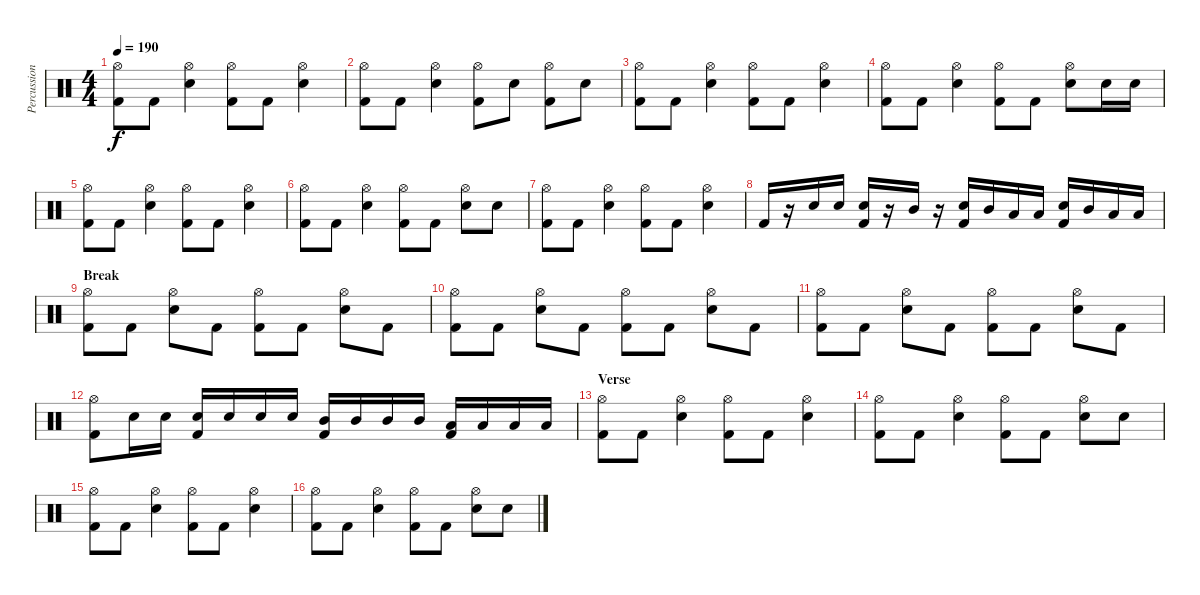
\track ("Percussion" "Percussion") {instrument percussion}
\staff {score}
\articulation defaults
\ts (4 4)
\tempo 190
\clef neutral
\ks c
("Hi-Hat (open)" "Kick (hit) 2").8{dy f} "Kick (hit) 2".8 ("Hi-Hat (open)" "Snare (hit) 2").4 ("Hi-Hat (open)" "Kick (hit) 2").8 "Kick (hit) 2".8 ("Hi-Hat (open)" "Snare (hit) 2").4 |
("Hi-Hat (open)" "Kick (hit) 2").8 "Kick (hit) 2".8 ("Hi-Hat (open)" "Snare (hit) 2").4 ("Hi-Hat (open)" "Kick (hit) 2").8 "Snare (hit) 2".8 ("Hi-Hat (open)" "Kick (hit) 2").8 "Snare (hit) 2".8 |
("Hi-Hat (open)" "Kick (hit) 2").8 "Kick (hit) 2".8 ("Hi-Hat (open)" "Snare (hit) 2").4 ("Hi-Hat (open)" "Kick (hit) 2").8 "Kick (hit) 2".8 ("Hi-Hat (open)" "Snare (hit) 2").4 |
("Hi-Hat (open)" "Kick (hit) 2").8 "Kick (hit) 2".8 ("Hi-Hat (open)" "Snare (hit) 2").4 ("Hi-Hat (open)" "Kick (hit) 2").8 "Kick (hit) 2".8 ("Hi-Hat (open)" "Snare (hit) 2").8 "Snare (hit) 2".16 "Snare (hit) 2".16 |
("Hi-Hat (open)" "Kick (hit) 2").8 "Kick (hit) 2".8 ("Hi-Hat (open)" "Snare (hit) 2").4 ("Hi-Hat (open)" "Kick (hit) 2").8 "Kick (hit) 2".8 ("Hi-Hat (open)" "Snare (hit) 2").4 |
("Hi-Hat (open)" "Kick (hit) 2").8 "Kick (hit) 2".8 ("Hi-Hat (open)" "Snare (hit) 2").4 ("Hi-Hat (open)" "Kick (hit) 2").8 "Kick (hit) 2".8 ("Hi-Hat (open)" "Snare (hit) 2").8 "Snare (hit) 2".8 |
("Hi-Hat (open)" "Kick (hit) 2").8 "Kick (hit) 2".8 ("Hi-Hat (open)" "Snare (hit) 2").4 ("Hi-Hat (open)" "Kick (hit) 2").8 "Kick (hit) 2".8 ("Hi-Hat (open)" "Snare (hit) 2").4 |
"Kick (hit) 2".16 r.16 "Snare (hit) 2".16 "Snare (hit) 2".16 ("Snare (hit) 2" "Kick (hit) 2").16 r.16 "Mid Tom (hit)".16 r.16 ("Snare (hit) 2" "Kick (hit) 2").16 "Mid Tom (hit)".16 "Low Tom (hit)".16 "Low Tom (hit)".16 ("Snare (hit) 2" "Kick (hit) 2").16 "Mid Tom (hit)".16 "Low Tom (hit)".16 "Low Tom (hit)".16 |
\section ("" "Break")
("Hi-Hat (open)" "Kick (hit) 2").8 "Kick (hit) 2".8 ("Hi-Hat (open)" "Snare (hit) 2").8 "Kick (hit) 2".8 ("Hi-Hat (open)" "Kick (hit) 2").8 "Kick (hit) 2".8 ("Hi-Hat (open)" "Snare (hit) 2").8 "Kick (hit) 2".8 |
("Hi-Hat (open)" "Kick (hit) 2").8 "Kick (hit) 2".8 ("Hi-Hat (open)" "Snare (hit) 2").8 "Kick (hit) 2".8 ("Hi-Hat (open)" "Kick (hit) 2").8 "Kick (hit) 2".8 ("Hi-Hat (open)" "Snare (hit) 2").8 "Kick (hit) 2".8 |
("Hi-Hat (open)" "Kick (hit) 2").8 "Kick (hit) 2".8 ("Hi-Hat (open)" "Snare (hit) 2").8 "Kick (hit) 2".8 ("Hi-Hat (open)" "Kick (hit) 2").8 "Kick (hit) 2".8 ("Hi-Hat (open)" "Snare (hit) 2").8 "Kick (hit) 2".8 |
("Hi-Hat (open)" "Kick (hit) 2").8 "Snare (hit) 2".16 "Snare (hit) 2".16 ("Snare (hit) 2" "Kick (hit) 2").16 "Snare (hit) 2".16 "Snare (hit) 2".16 "Snare (hit) 2".16 ("Mid Tom (hit)" "Kick (hit) 2").16 "Mid Tom (hit)".16 "Mid Tom (hit)".16 "Mid Tom (hit)".16 ("Low Tom (hit)" "Kick (hit) 2").16 "Low Tom (hit)".16 "Low Tom (hit)".16 "Low Tom (hit)".16 |
\section ("" "Verse")
("Hi-Hat (open)" "Kick (hit) 2").8 "Kick (hit) 2".8 ("Hi-Hat (open)" "Snare (hit) 2").4 ("Hi-Hat (open)" "Kick (hit) 2").8 "Kick (hit) 2".8 ("Hi-Hat (open)" "Snare (hit) 2").4 |
("Hi-Hat (open)" "Kick (hit) 2").8 "Kick (hit) 2".8 ("Hi-Hat (open)" "Snare (hit) 2").4 ("Hi-Hat (open)" "Kick (hit) 2").8 "Kick (hit) 2".8 ("Hi-Hat (open)" "Snare (hit) 2").8 "Snare (hit) 2".8 |
("Hi-Hat (open)" "Kick (hit) 2").8 "Kick (hit) 2".8 ("Hi-Hat (open)" "Snare (hit) 2").4 ("Hi-Hat (open)" "Kick (hit) 2").8 "Kick (hit) 2".8 ("Hi-Hat (open)" "Snare (hit) 2").4 |
("Hi-Hat (open)" "Kick (hit) 2").8 "Kick (hit) 2".8 ("Hi-Hat (open)" "Snare (hit) 2").4 ("Hi-Hat (open)" "Kick (hit) 2").8 "Kick (hit) 2".8 ("Hi-Hat (open)" "Snare (hit) 2").8 "Snare (hit) 2".8
